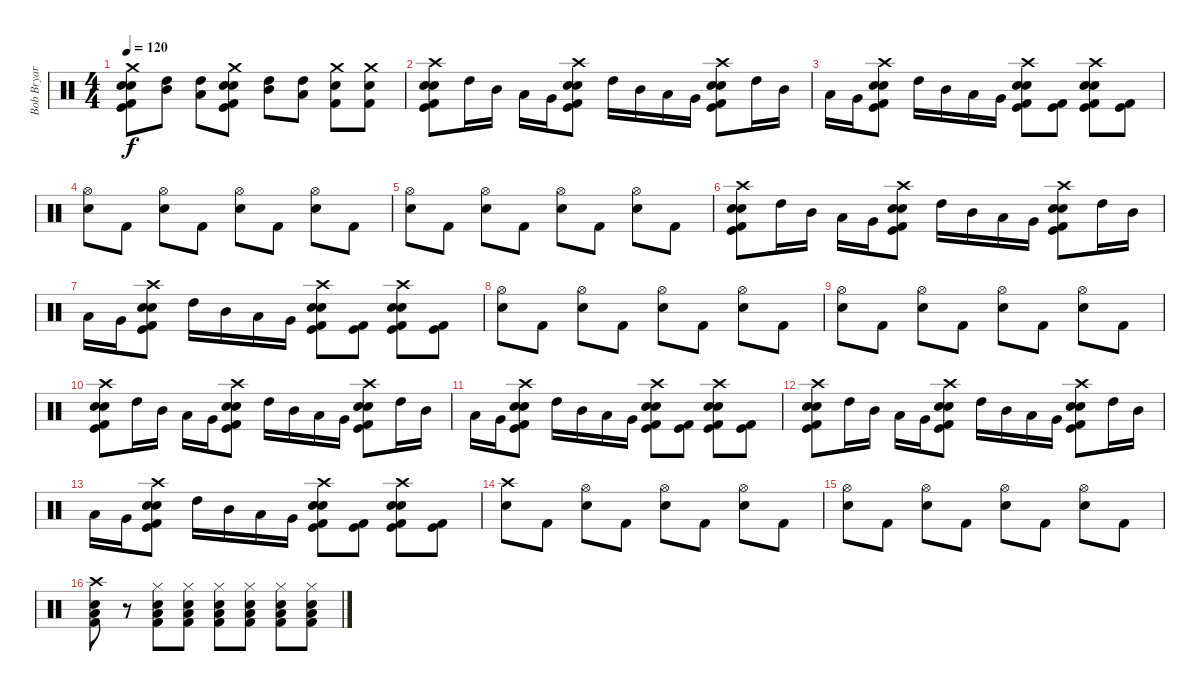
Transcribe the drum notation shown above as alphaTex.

\track ("Bob Bryar" "Bob Bryar") {instrument percussion}
\staff {score}
\articulation defaults
\ts (4 4)
\tempo 120
\clef neutral
\ks c
("Crash medium (hit)" "Electric Snare (hit)" "Snare (hit) 2" "Kick (hit)" "Kick (hit) 2").8{dy f} ("Mid Tom (hit)" "High Tom (hit)").8 ("High Tom (hit)" "Low Tom (hit)").8 ("Crash medium (hit)" "Electric Snare (hit)" "Snare (hit) 2" "Kick (hit)" "Kick (hit) 2").8 ("Mid Tom (hit)" "High Tom (hit)").8 ("High Tom (hit)" "Low Tom (hit)").8 ("Crash medium (hit)" "Snare (hit) 2" "Kick (hit) 2").8 ("Crash medium (hit)" "Snare (hit) 2" "Kick (hit) 2").8 |
("Crash high (hit)" "Electric Snare (hit)" "Snare (hit) 2" "Kick (hit)" "Kick (hit) 2").8 "High Tom (hit)".16 "Mid Tom (hit)".16 "Low Tom (hit)".16 "Very Low Tom (hit)".16 ("Crash high (hit)" "Electric Snare (hit)" "Snare (hit) 2" "Kick (hit)" "Kick (hit) 2").8 "High Tom (hit)".16 "Mid Tom (hit)".16 "Low Tom (hit)".16 "Very Low Tom (hit)".16 ("Crash high (hit)" "Electric Snare (hit)" "Snare (hit) 2" "Kick (hit)" "Kick (hit) 2").8 "High Tom (hit)".16 "Mid Tom (hit)".16 |
"Low Tom (hit)".16 "Very Low Tom (hit)".16 ("Crash high (hit)" "Electric Snare (hit)" "Snare (hit) 2" "Kick (hit)" "Kick (hit) 2").8 "High Tom (hit)".16 "Mid Tom (hit)".16 "Low Tom (hit)".16 "Very Low Tom (hit)".16 ("Crash high (hit)" "Electric Snare (hit)" "Snare (hit) 2" "Kick (hit)" "Kick (hit) 2").8 ("Kick (hit)" "Kick (hit) 2").8 ("Crash high (hit)" "Electric Snare (hit)" "Snare (hit) 2" "Kick (hit)" "Kick (hit) 2").8 ("Kick (hit)" "Kick (hit) 2").8 |
("Hi-Hat (open)" "Snare (hit) 2").8 "Kick (hit) 2".8 ("Hi-Hat (open)" "Snare (hit) 2").8 "Kick (hit) 2".8 ("Hi-Hat (open)" "Snare (hit) 2").8 "Kick (hit) 2".8 ("Hi-Hat (open)" "Snare (hit) 2").8 "Kick (hit) 2".8 |
("Hi-Hat (open)" "Snare (hit) 2").8 "Kick (hit) 2".8 ("Hi-Hat (open)" "Snare (hit) 2").8 "Kick (hit) 2".8 ("Hi-Hat (open)" "Snare (hit) 2").8 "Kick (hit) 2".8 ("Hi-Hat (open)" "Snare (hit) 2").8 "Kick (hit) 2".8 |
("Crash high (hit)" "Electric Snare (hit)" "Snare (hit) 2" "Kick (hit)" "Kick (hit) 2").8 "High Tom (hit)".16 "Mid Tom (hit)".16 "Low Tom (hit)".16 "Very Low Tom (hit)".16 ("Crash high (hit)" "Electric Snare (hit)" "Snare (hit) 2" "Kick (hit)" "Kick (hit) 2").8 "High Tom (hit)".16 "Mid Tom (hit)".16 "Low Tom (hit)".16 "Very Low Tom (hit)".16 ("Crash high (hit)" "Electric Snare (hit)" "Snare (hit) 2" "Kick (hit)" "Kick (hit) 2").8 "High Tom (hit)".16 "Mid Tom (hit)".16 |
"Low Tom (hit)".16 "Very Low Tom (hit)".16 ("Crash high (hit)" "Electric Snare (hit)" "Snare (hit) 2" "Kick (hit)" "Kick (hit) 2").8 "High Tom (hit)".16 "Mid Tom (hit)".16 "Low Tom (hit)".16 "Very Low Tom (hit)".16 ("Crash high (hit)" "Electric Snare (hit)" "Snare (hit) 2" "Kick (hit)" "Kick (hit) 2").8 ("Kick (hit)" "Kick (hit) 2").8 ("Crash high (hit)" "Electric Snare (hit)" "Snare (hit) 2" "Kick (hit)" "Kick (hit) 2").8 ("Kick (hit)" "Kick (hit) 2").8 |
("Hi-Hat (open)" "Snare (hit) 2").8 "Kick (hit) 2".8 ("Hi-Hat (open)" "Snare (hit) 2").8 "Kick (hit) 2".8 ("Hi-Hat (open)" "Snare (hit) 2").8 "Kick (hit) 2".8 ("Hi-Hat (open)" "Snare (hit) 2").8 "Kick (hit) 2".8 |
("Hi-Hat (open)" "Snare (hit) 2").8 "Kick (hit) 2".8 ("Hi-Hat (open)" "Snare (hit) 2").8 "Kick (hit) 2".8 ("Hi-Hat (open)" "Snare (hit) 2").8 "Kick (hit) 2".8 ("Hi-Hat (open)" "Snare (hit) 2").8 "Kick (hit) 2".8 |
("Crash high (hit)" "Electric Snare (hit)" "Snare (hit) 2" "Kick (hit)" "Kick (hit) 2").8 "High Tom (hit)".16 "Mid Tom (hit)".16 "Low Tom (hit)".16 "Very Low Tom (hit)".16 ("Crash high (hit)" "Electric Snare (hit)" "Snare (hit) 2" "Kick (hit)" "Kick (hit) 2").8 "High Tom (hit)".16 "Mid Tom (hit)".16 "Low Tom (hit)".16 "Very Low Tom (hit)".16 ("Crash high (hit)" "Electric Snare (hit)" "Snare (hit) 2" "Kick (hit)" "Kick (hit) 2").8 "High Tom (hit)".16 "Mid Tom (hit)".16 |
"Low Tom (hit)".16 "Very Low Tom (hit)".16 ("Crash high (hit)" "Electric Snare (hit)" "Snare (hit) 2" "Kick (hit)" "Kick (hit) 2").8 "High Tom (hit)".16 "Mid Tom (hit)".16 "Low Tom (hit)".16 "Very Low Tom (hit)".16 ("Crash high (hit)" "Electric Snare (hit)" "Snare (hit) 2" "Kick (hit)" "Kick (hit) 2").8 ("Kick (hit)" "Kick (hit) 2").8 ("Crash high (hit)" "Electric Snare (hit)" "Snare (hit) 2" "Kick (hit)" "Kick (hit) 2").8 ("Kick (hit)" "Kick (hit) 2").8 |
("Crash high (hit)" "Electric Snare (hit)" "Snare (hit) 2" "Kick (hit)" "Kick (hit) 2").8 "High Tom (hit)".16 "Mid Tom (hit)".16 "Low Tom (hit)".16 "Very Low Tom (hit)".16 ("Crash high (hit)" "Electric Snare (hit)" "Snare (hit) 2" "Kick (hit)" "Kick (hit) 2").8 "High Tom (hit)".16 "Mid Tom (hit)".16 "Low Tom (hit)".16 "Very Low Tom (hit)".16 ("Crash high (hit)" "Electric Snare (hit)" "Snare (hit) 2" "Kick (hit)" "Kick (hit) 2").8 "High Tom (hit)".16 "Mid Tom (hit)".16 |
"Low Tom (hit)".16 "Very Low Tom (hit)".16 ("Crash high (hit)" "Electric Snare (hit)" "Snare (hit) 2" "Kick (hit)" "Kick (hit) 2").8 "High Tom (hit)".16 "Mid Tom (hit)".16 "Low Tom (hit)".16 "Very Low Tom (hit)".16 ("Crash high (hit)" "Electric Snare (hit)" "Snare (hit) 2" "Kick (hit)" "Kick (hit) 2").8 ("Kick (hit)" "Kick (hit) 2").8 ("Crash high (hit)" "Electric Snare (hit)" "Snare (hit) 2" "Kick (hit)" "Kick (hit) 2").8 ("Kick (hit)" "Kick (hit) 2").8 |
("Crash high (hit)" "Snare (hit) 2").8 "Kick (hit) 2".8 ("Hi-Hat (open)" "Snare (hit) 2").8 "Kick (hit) 2".8 ("Hi-Hat (open)" "Snare (hit) 2").8 "Kick (hit) 2".8 ("Hi-Hat (open)" "Snare (hit) 2").8 "Kick (hit) 2".8 |
("Hi-Hat (open)" "Snare (hit) 2").8 "Kick (hit) 2".8 ("Hi-Hat (open)" "Snare (hit) 2").8 "Kick (hit) 2".8 ("Hi-Hat (open)" "Snare (hit) 2").8 "Kick (hit) 2".8 ("Hi-Hat (open)" "Snare (hit) 2").8 "Kick (hit) 2".8 |
("Crash high (hit)" "Snare (hit) 2" "Low Tom (hit)" "Kick (hit) 2").8 r.8 ("Hi-Hat (closed)" "Snare (hit) 2" "Low Tom (hit)" "Kick (hit) 2").8{volume 3} ("Hi-Hat (closed)" "Snare (hit) 2" "Low Tom (hit)" "Kick (hit) 2").8{volume 4} ("Hi-Hat (closed)" "Snare (hit) 2" "Low Tom (hit)" "Kick (hit) 2").8{volume 6} ("Hi-Hat (closed)" "Snare (hit) 2" "Low Tom (hit)" "Kick (hit) 2").8{volume 7} ("Hi-Hat (closed)" "Snare (hit) 2" "Low Tom (hit)" "Kick (hit) 2").8{volume 8} ("Hi-Hat (closed)" "Snare (hit) 2" "Low Tom (hit)" "Kick (hit) 2").8{volume 9}
